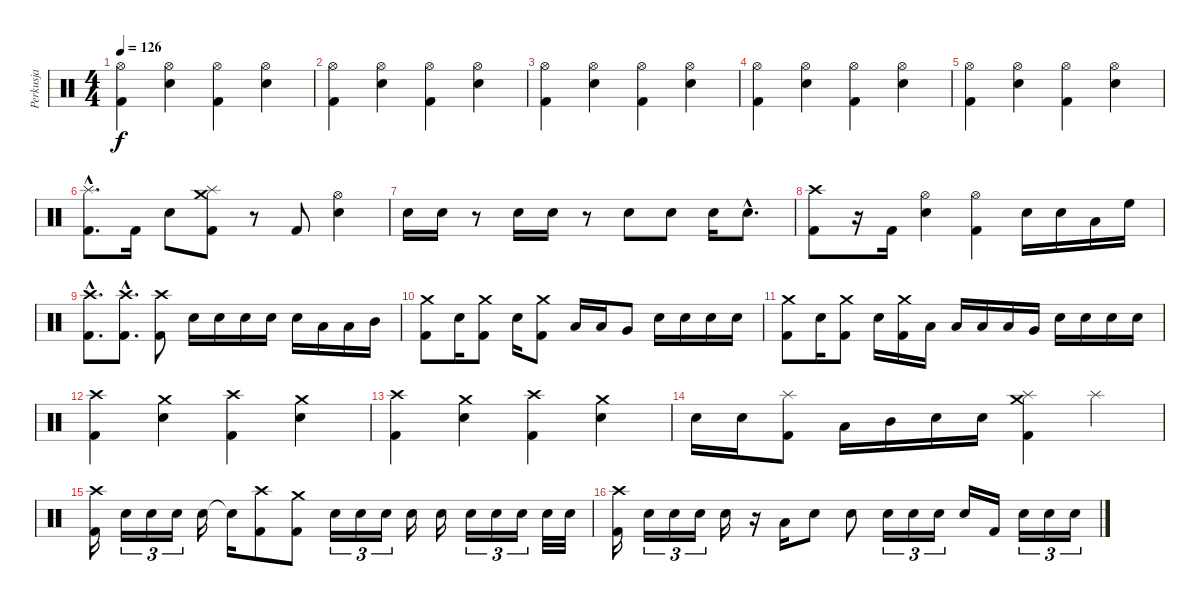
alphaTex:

\track ("Perkusja" "Perkusja") {instrument percussion}
\staff {score}
\articulation defaults
\ts (4 4)
\tempo 126
\clef neutral
\ks c
("Hi-Hat (open)" "Kick (hit) 2").4{dy f} ("Hi-Hat (open)" "Electric Snare (hit)").4 ("Hi-Hat (open)" "Kick (hit) 2").4 ("Hi-Hat (open)" "Electric Snare (hit)").4 |
("Hi-Hat (open)" "Kick (hit) 2").4 ("Hi-Hat (open)" "Electric Snare (hit)").4 ("Hi-Hat (open)" "Kick (hit) 2").4 ("Hi-Hat (open)" "Electric Snare (hit)").4 |
("Hi-Hat (open)" "Kick (hit) 2").4 ("Hi-Hat (open)" "Electric Snare (hit)").4 ("Hi-Hat (open)" "Kick (hit) 2").4 ("Hi-Hat (open)" "Electric Snare (hit)").4 |
("Hi-Hat (open)" "Kick (hit) 2").4 ("Hi-Hat (open)" "Electric Snare (hit)").4 ("Hi-Hat (open)" "Kick (hit) 2").4 ("Hi-Hat (open)" "Electric Snare (hit)").4 |
("Hi-Hat (open)" "Kick (hit) 2").4 ("Hi-Hat (open)" "Electric Snare (hit)").4 ("Hi-Hat (open)" "Kick (hit) 2").4 ("Hi-Hat (open)" "Electric Snare (hit)").4 |
("Splash (hit)"{hac} "Kick (hit) 2"{hac}).8{d} "Kick (hit) 2".16 "Electric Snare (hit)".8 ("Crash medium (hit)" "Splash (hit)" "Kick (hit) 2").8 r.8 "Kick (hit) 2".8 ("Hi-Hat (open)" "Electric Snare (hit)").4 |
"Electric Snare (hit)".16 "Electric Snare (hit)".16 r.8 "Electric Snare (hit)".16 "Electric Snare (hit)".16 r.8 "Electric Snare (hit)".8 "Electric Snare (hit)".8 "Electric Snare (hit)".16 "Electric Snare (hit)"{hac}.8{d} |
("Crash high (hit)" "Kick (hit) 2").8 r.16 "Kick (hit) 2".16 ("Hi-Hat (open)" "Electric Snare (hit)").4 ("Hi-Hat (open)" "Kick (hit) 2").4 "Electric Snare (hit)".16 "Electric Snare (hit)".16 "Low Tom (hit)".16 "High Floor Tom (hit)".16 |
("Crash high (hit)"{hac} "Kick (hit) 2"{hac}).8{d} ("Crash high (hit)"{hac} "Kick (hit) 2"{hac}).8{d} ("Crash high (hit)" "Kick (hit) 2").8 "Electric Snare (hit)".16 "Electric Snare (hit)".16 "Electric Snare (hit)".16 "Electric Snare (hit)".16 "Electric Snare (hit)".16 "Low Tom (hit)".16 "Low Tom (hit)".16 "Mid Tom (hit)".16 |
("Crash medium (hit)" "Kick (hit) 2").8 "Electric Snare (hit)".16 ("Crash medium (hit)" "Kick (hit) 2").8 "Electric Snare (hit)".16 ("Crash medium (hit)" "Kick (hit) 2").8 "Low Tom (hit)".16 "Low Tom (hit)".16 "Very Low Tom (hit)".8 "Electric Snare (hit)".16 "Electric Snare (hit)".16 "Electric Snare (hit)".16 "Electric Snare (hit)".16 |
("Crash medium (hit)" "Kick (hit) 2").8 "Electric Snare (hit)".16 ("Crash medium (hit)" "Kick (hit) 2").8 "Electric Snare (hit)".16 ("Crash medium (hit)" "Kick (hit) 2").16 "Low Floor Tom (hit)".16 "Low Tom (hit)".16 "Low Tom (hit)".16 "Low Floor Tom (hit)".16 "Very Low Tom (hit)".16 "Electric Snare (hit)".16 "Electric Snare (hit)".16 "Electric Snare (hit)".16 "Electric Snare (hit)".16 |
("Crash high (hit)" "Kick (hit) 2").4 ("Crash medium (hit)" "Electric Snare (hit)").4 ("Crash high (hit)" "Kick (hit) 2").4 ("Crash medium (hit)" "Electric Snare (hit)").4 |
("Crash high (hit)" "Kick (hit) 2").4 ("Crash medium (hit)" "Electric Snare (hit)").4 ("Crash high (hit)" "Kick (hit) 2").4 ("Crash medium (hit)" "Electric Snare (hit)").4 |
"Electric Snare (hit)".16 "Electric Snare (hit)".16 ("Splash (hit)" "Kick (hit) 2").8 "Low Tom (hit)".16 "Mid Tom (hit)".16 "Electric Snare (hit)".16 "Electric Snare (hit)".16 ("Crash medium (hit)" "Splash (hit)" "Kick (hit) 2").4 "Splash (hit)".4 |
("Crash high (hit)" "Kick (hit) 2").16 "Electric Snare (hit)".16{tu (3 2) volume 8} "Electric Snare (hit)".16{tu (3 2)} "Electric Snare (hit)".16{tu (3 2)} "Electric Snare (hit)".16{volume 16} "Electric Snare (hit)"{t}.16 ("Crash high (hit)" "Kick (hit) 2").8 ("Crash medium (hit)" "Kick (hit) 2").8 "Electric Snare (hit)".16{tu (3 2) volume 8} "Electric Snare (hit)".16{tu (3 2)} "Electric Snare (hit)".16{tu (3 2)} "Electric Snare (hit)".16{volume 16} "Electric Snare (hit)".16 "Electric Snare (hit)".16{tu (3 2) volume 8} "Electric Snare (hit)".16{tu (3 2)} "Electric Snare (hit)".16{tu (3 2)} "Electric Snare (hit)".32 "Electric Snare (hit)".32 |
("Crash high (hit)" "Kick (hit) 2").16{volume 16} "Electric Snare (hit)".16{tu (3 2) volume 8} "Electric Snare (hit)".16{tu (3 2)} "Electric Snare (hit)".16{tu (3 2)} "Electric Snare (hit)".16{volume 16} r.16 "Low Floor Tom (hit)".16 "Electric Snare (hit)".8 "Electric Snare (hit)".8 "Electric Snare (hit)".16{tu (3 2) volume 8} "Electric Snare (hit)".16{tu (3 2)} "Electric Snare (hit)".16{tu (3 2)} "Electric Snare (hit)".16{volume 16} "Kick (hit) 2".16 "Electric Snare (hit)".16{tu (3 2) volume 8} "Electric Snare (hit)".16{tu (3 2)} "Electric Snare (hit)".16{tu (3 2)}
